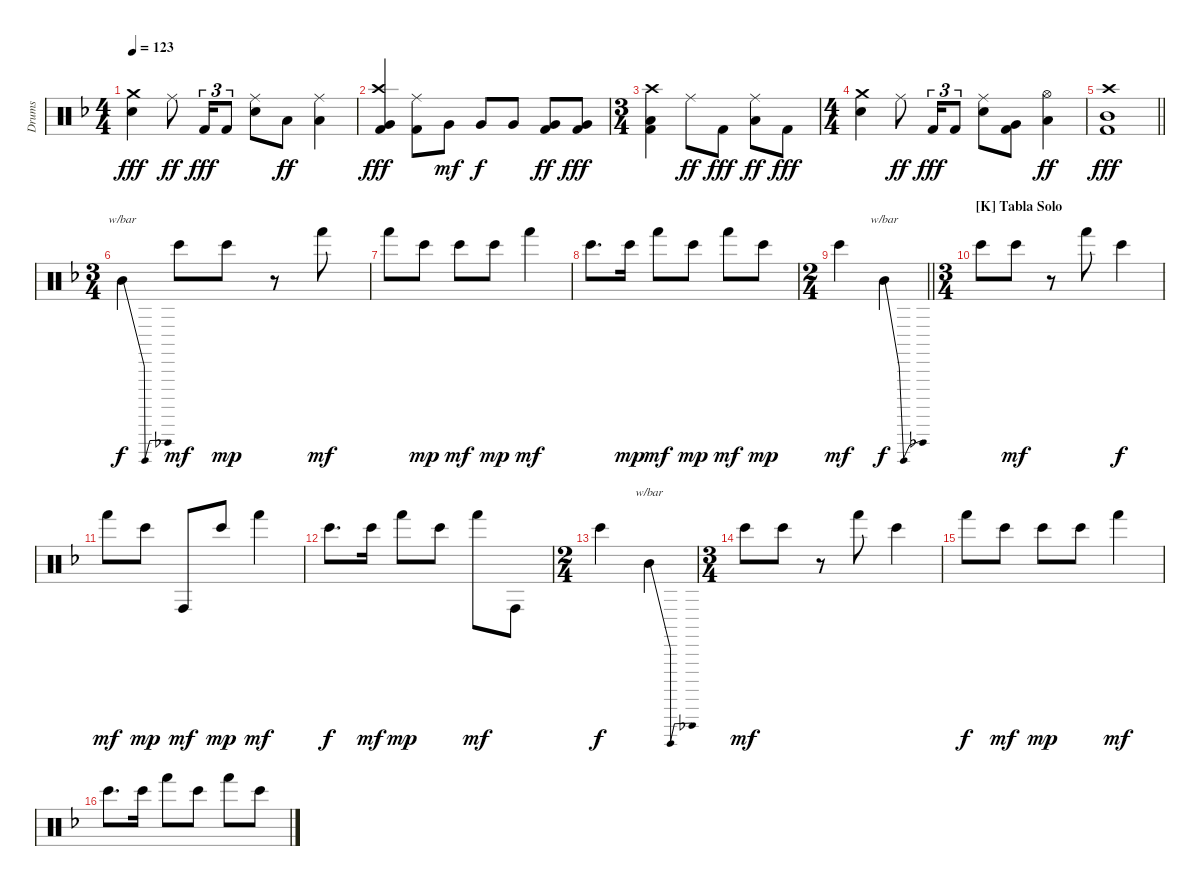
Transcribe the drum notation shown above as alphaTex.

\track ("Drums" "Drums") {instrument percussion}
\staff {score}
\articulation defaults
\ts (4 4)
\tempo 123
\clef neutral
\ks dminor
("Crash medium (hit)" "Snare (hit) 2").4{dy fff} "Ride (middle)".8{dy ff} "Kick (hit) 2".16{tu (3 2) dy fff} "Kick (hit) 2".8{tu (3 2)} ("Ride (middle)" "Snare (hit) 2").8 "Low Tom (hit)".8{dy ff} ("Ride (middle)" "Low Tom (hit)").4 |
("Crash high (hit)" "Very Low Tom (hit)" "Kick (hit) 2").4{dy fff} ("Ride (middle)" "Kick (hit) 2").8 "Very Low Tom (hit)".8{dy mf} "Very Low Tom (hit)".8{dy f} "Very Low Tom (hit)".8 ("Very Low Tom (hit)" "Kick (hit) 2").8{dy ff} ("Very Low Tom (hit)" "Kick (hit) 2").8{dy fff} |
\ts (3 4)
("Crash high (hit)" "Low Tom (hit)" "Kick (hit) 2").4 "Ride (middle)".8{dy ff} "Kick (hit) 2".8{dy fff} ("Ride (middle)" "Low Tom (hit)").8{dy ff} "Kick (hit) 2".8{dy fff} |
\ts (4 4)
("Crash medium (hit)" "Snare (hit) 2").4 "Ride (middle)".8{dy ff} "Kick (hit) 2".16{tu (3 2) dy fff} "Kick (hit) 2".8{tu (3 2)} ("Ride (middle)" "Snare (hit) 2").8 ("Very Low Tom (hit)" "Kick (hit) 2").8 ("Hi-Hat (open)" "Low Tom (hit)").4{dy ff} |
\barLineRight lightlight
("Crash high (hit)" "Mid Tom (hit)" "Kick (hit) 2").1{dy fff} |
\ts (3 4)
"Mid Tom (hit)".4{tbe (dip default 0 0 30 -12 60 0) dy f} "Bongo High (hit)".8{dy mf} "Bongo High (hit)".8{dy mp} r.8 "Hand (hit)".8{dy mf} |
"Hand (hit)".8 "Bongo High (hit)".8{dy mp} "Bongo High (hit)".8{dy mf} "Bongo High (hit)".8{dy mp} "Hand (hit)".4{dy mf} |
"Bongo High (hit)".8{d} "Bongo High (hit)".16{dy mp} "Hand (hit)".8{dy mf} "Bongo High (hit)".8{dy mp} "Hand (hit)".8{dy mf} "Bongo High (hit)".8{dy mp} |
\ts (2 4)
\barLineRight lightlight "Bongo High (hit)".4{dy mf} "Mid Tom (hit)".4{tbe (dip default 0 0 30 -12 60 0) dy f}
|
\ts (3 4)
\section ("" "[K] Tabla Solo")
"Bongo High (hit)".8 "Bongo High (hit)".8{dy mf} r.8 "Hand (hit)".8 "Bongo High (hit)".4{dy f} |
"Hand (hit)".8{dy mf} "Bongo High (hit)".8{dy mp} "Conga high (hit)".8{dy mf} "Bongo High (hit)".8{dy mp} "Hand (hit)".4{dy mf} |
"Bongo High (hit)".8{d dy f} "Bongo High (hit)".16{dy mf} "Hand (hit)".8{dy mp} "Bongo High (hit)".8 "Hand (hit)".8{dy mf} "Conga high (hit)".8 |
\ts (2 4)
"Bongo High (hit)".4{dy f} "Mid Tom (hit)".4{tbe (dip default 0 0 30 -12 60 0)} |
\ts (3 4)
"Bongo High (hit)".8{dy mf} "Bongo High (hit)".8 r.8 "Hand (hit)".8 "Bongo High (hit)".4 |
"Hand (hit)".8{dy f} "Bongo High (hit)".8{dy mf} "Bongo High (hit)".8{dy mp} "Bongo High (hit)".8 "Hand (hit)".4{dy mf} |
"Bongo High (hit)".8{d} "Bongo High (hit)".16 "Hand (hit)".8 "Bongo High (hit)".8 "Hand (hit)".8 "Bongo High (hit)".8
